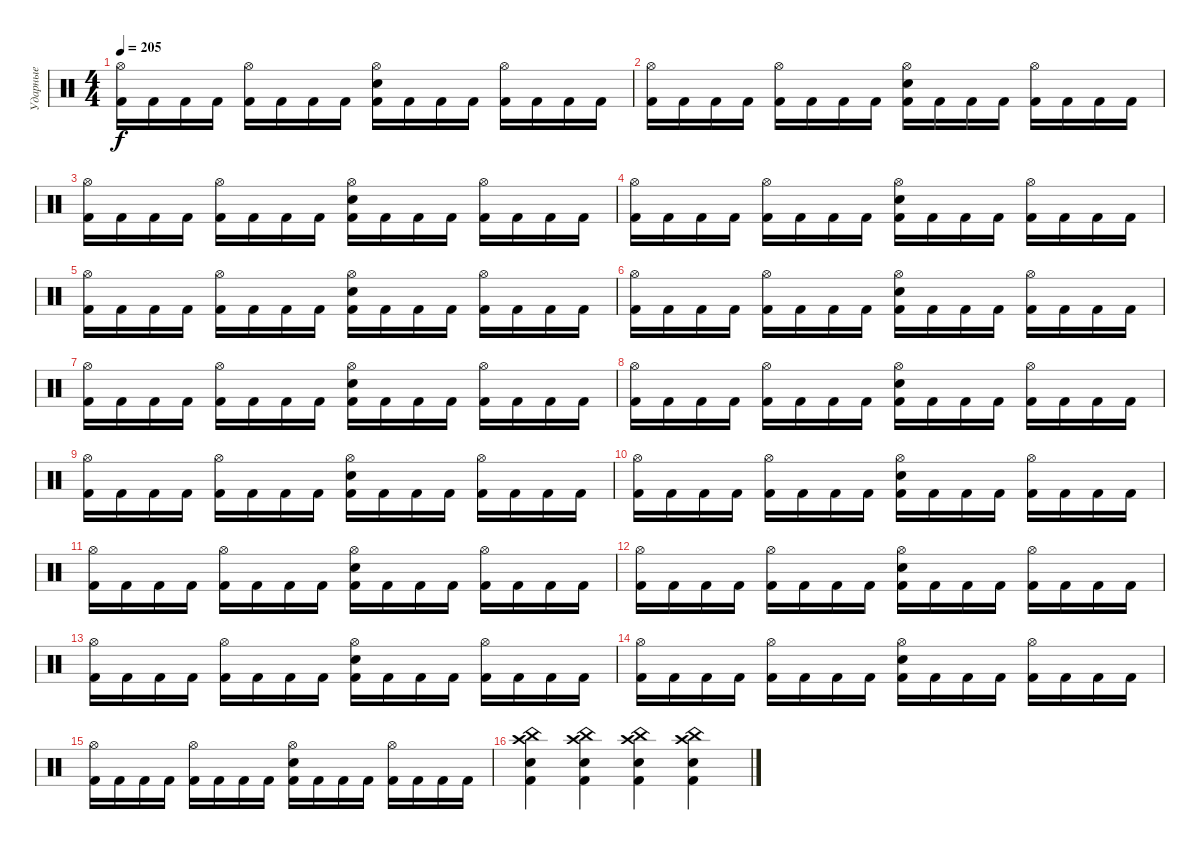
\track ("Ударные" "Ударные") {instrument percussion}
\staff {score}
\articulation defaults
\ts (4 4)
\tempo 205
\clef neutral
\ks c
("Hi-Hat (open)" "Kick (hit) 2").16{dy f} "Kick (hit) 2".16 "Kick (hit) 2".16 "Kick (hit) 2".16 ("Hi-Hat (open)" "Kick (hit) 2").16 "Kick (hit) 2".16 "Kick (hit) 2".16 "Kick (hit) 2".16 ("Hi-Hat (open)" "Electric Snare (hit)" "Kick (hit) 2").16 "Kick (hit) 2".16 "Kick (hit) 2".16 "Kick (hit) 2".16 ("Hi-Hat (open)" "Kick (hit) 2").16 "Kick (hit) 2".16 "Kick (hit) 2".16 "Kick (hit) 2".16 |
("Hi-Hat (open)" "Kick (hit) 2").16 "Kick (hit) 2".16 "Kick (hit) 2".16 "Kick (hit) 2".16 ("Hi-Hat (open)" "Kick (hit) 2").16 "Kick (hit) 2".16 "Kick (hit) 2".16 "Kick (hit) 2".16 ("Hi-Hat (open)" "Electric Snare (hit)" "Kick (hit) 2").16 "Kick (hit) 2".16 "Kick (hit) 2".16 "Kick (hit) 2".16 ("Hi-Hat (open)" "Kick (hit) 2").16 "Kick (hit) 2".16 "Kick (hit) 2".16 "Kick (hit) 2".16 |
("Hi-Hat (open)" "Kick (hit) 2").16 "Kick (hit) 2".16 "Kick (hit) 2".16 "Kick (hit) 2".16 ("Hi-Hat (open)" "Kick (hit) 2").16 "Kick (hit) 2".16 "Kick (hit) 2".16 "Kick (hit) 2".16 ("Hi-Hat (open)" "Electric Snare (hit)" "Kick (hit) 2").16 "Kick (hit) 2".16 "Kick (hit) 2".16 "Kick (hit) 2".16 ("Hi-Hat (open)" "Kick (hit) 2").16 "Kick (hit) 2".16 "Kick (hit) 2".16 "Kick (hit) 2".16 |
("Hi-Hat (open)" "Kick (hit) 2").16 "Kick (hit) 2".16 "Kick (hit) 2".16 "Kick (hit) 2".16 ("Hi-Hat (open)" "Kick (hit) 2").16 "Kick (hit) 2".16 "Kick (hit) 2".16 "Kick (hit) 2".16 ("Hi-Hat (open)" "Electric Snare (hit)" "Kick (hit) 2").16 "Kick (hit) 2".16 "Kick (hit) 2".16 "Kick (hit) 2".16 ("Hi-Hat (open)" "Kick (hit) 2").16 "Kick (hit) 2".16 "Kick (hit) 2".16 "Kick (hit) 2".16 |
("Hi-Hat (open)" "Kick (hit) 2").16 "Kick (hit) 2".16 "Kick (hit) 2".16 "Kick (hit) 2".16 ("Hi-Hat (open)" "Kick (hit) 2").16 "Kick (hit) 2".16 "Kick (hit) 2".16 "Kick (hit) 2".16 ("Hi-Hat (open)" "Electric Snare (hit)" "Kick (hit) 2").16 "Kick (hit) 2".16 "Kick (hit) 2".16 "Kick (hit) 2".16 ("Hi-Hat (open)" "Kick (hit) 2").16 "Kick (hit) 2".16 "Kick (hit) 2".16 "Kick (hit) 2".16 |
("Hi-Hat (open)" "Kick (hit) 2").16 "Kick (hit) 2".16 "Kick (hit) 2".16 "Kick (hit) 2".16 ("Hi-Hat (open)" "Kick (hit) 2").16 "Kick (hit) 2".16 "Kick (hit) 2".16 "Kick (hit) 2".16 ("Hi-Hat (open)" "Electric Snare (hit)" "Kick (hit) 2").16 "Kick (hit) 2".16 "Kick (hit) 2".16 "Kick (hit) 2".16 ("Hi-Hat (open)" "Kick (hit) 2").16 "Kick (hit) 2".16 "Kick (hit) 2".16 "Kick (hit) 2".16 |
("Hi-Hat (open)" "Kick (hit) 2").16 "Kick (hit) 2".16 "Kick (hit) 2".16 "Kick (hit) 2".16 ("Hi-Hat (open)" "Kick (hit) 2").16 "Kick (hit) 2".16 "Kick (hit) 2".16 "Kick (hit) 2".16 ("Hi-Hat (open)" "Electric Snare (hit)" "Kick (hit) 2").16 "Kick (hit) 2".16 "Kick (hit) 2".16 "Kick (hit) 2".16 ("Hi-Hat (open)" "Kick (hit) 2").16 "Kick (hit) 2".16 "Kick (hit) 2".16 "Kick (hit) 2".16 |
("Hi-Hat (open)" "Kick (hit) 2").16 "Kick (hit) 2".16 "Kick (hit) 2".16 "Kick (hit) 2".16 ("Hi-Hat (open)" "Kick (hit) 2").16 "Kick (hit) 2".16 "Kick (hit) 2".16 "Kick (hit) 2".16 ("Hi-Hat (open)" "Electric Snare (hit)" "Kick (hit) 2").16 "Kick (hit) 2".16 "Kick (hit) 2".16 "Kick (hit) 2".16 ("Hi-Hat (open)" "Kick (hit) 2").16 "Kick (hit) 2".16 "Kick (hit) 2".16 "Kick (hit) 2".16 |
("Hi-Hat (open)" "Kick (hit) 2").16 "Kick (hit) 2".16 "Kick (hit) 2".16 "Kick (hit) 2".16 ("Hi-Hat (open)" "Kick (hit) 2").16 "Kick (hit) 2".16 "Kick (hit) 2".16 "Kick (hit) 2".16 ("Hi-Hat (open)" "Electric Snare (hit)" "Kick (hit) 2").16 "Kick (hit) 2".16 "Kick (hit) 2".16 "Kick (hit) 2".16 ("Hi-Hat (open)" "Kick (hit) 2").16 "Kick (hit) 2".16 "Kick (hit) 2".16 "Kick (hit) 2".16 |
("Hi-Hat (open)" "Kick (hit) 2").16 "Kick (hit) 2".16 "Kick (hit) 2".16 "Kick (hit) 2".16 ("Hi-Hat (open)" "Kick (hit) 2").16 "Kick (hit) 2".16 "Kick (hit) 2".16 "Kick (hit) 2".16 ("Hi-Hat (open)" "Electric Snare (hit)" "Kick (hit) 2").16 "Kick (hit) 2".16 "Kick (hit) 2".16 "Kick (hit) 2".16 ("Hi-Hat (open)" "Kick (hit) 2").16 "Kick (hit) 2".16 "Kick (hit) 2".16 "Kick (hit) 2".16 |
("Hi-Hat (open)" "Kick (hit) 2").16 "Kick (hit) 2".16 "Kick (hit) 2".16 "Kick (hit) 2".16 ("Hi-Hat (open)" "Kick (hit) 2").16 "Kick (hit) 2".16 "Kick (hit) 2".16 "Kick (hit) 2".16 ("Hi-Hat (open)" "Electric Snare (hit)" "Kick (hit) 2").16 "Kick (hit) 2".16 "Kick (hit) 2".16 "Kick (hit) 2".16 ("Hi-Hat (open)" "Kick (hit) 2").16 "Kick (hit) 2".16 "Kick (hit) 2".16 "Kick (hit) 2".16 |
("Hi-Hat (open)" "Kick (hit) 2").16 "Kick (hit) 2".16 "Kick (hit) 2".16 "Kick (hit) 2".16 ("Hi-Hat (open)" "Kick (hit) 2").16 "Kick (hit) 2".16 "Kick (hit) 2".16 "Kick (hit) 2".16 ("Hi-Hat (open)" "Electric Snare (hit)" "Kick (hit) 2").16 "Kick (hit) 2".16 "Kick (hit) 2".16 "Kick (hit) 2".16 ("Hi-Hat (open)" "Kick (hit) 2").16 "Kick (hit) 2".16 "Kick (hit) 2".16 "Kick (hit) 2".16 |
("Hi-Hat (open)" "Kick (hit) 2").16 "Kick (hit) 2".16 "Kick (hit) 2".16 "Kick (hit) 2".16 ("Hi-Hat (open)" "Kick (hit) 2").16 "Kick (hit) 2".16 "Kick (hit) 2".16 "Kick (hit) 2".16 ("Hi-Hat (open)" "Electric Snare (hit)" "Kick (hit) 2").16 "Kick (hit) 2".16 "Kick (hit) 2".16 "Kick (hit) 2".16 ("Hi-Hat (open)" "Kick (hit) 2").16 "Kick (hit) 2".16 "Kick (hit) 2".16 "Kick (hit) 2".16 |
("Hi-Hat (open)" "Kick (hit) 2").16 "Kick (hit) 2".16 "Kick (hit) 2".16 "Kick (hit) 2".16 ("Hi-Hat (open)" "Kick (hit) 2").16 "Kick (hit) 2".16 "Kick (hit) 2".16 "Kick (hit) 2".16 ("Hi-Hat (open)" "Electric Snare (hit)" "Kick (hit) 2").16 "Kick (hit) 2".16 "Kick (hit) 2".16 "Kick (hit) 2".16 ("Hi-Hat (open)" "Kick (hit) 2").16 "Kick (hit) 2".16 "Kick (hit) 2".16 "Kick (hit) 2".16 |
("Hi-Hat (open)" "Kick (hit) 2").16 "Kick (hit) 2".16 "Kick (hit) 2".16 "Kick (hit) 2".16 ("Hi-Hat (open)" "Kick (hit) 2").16 "Kick (hit) 2".16 "Kick (hit) 2".16 "Kick (hit) 2".16 ("Hi-Hat (open)" "Electric Snare (hit)" "Kick (hit) 2").16 "Kick (hit) 2".16 "Kick (hit) 2".16 "Kick (hit) 2".16 ("Hi-Hat (open)" "Kick (hit) 2").16 "Kick (hit) 2".16 "Kick (hit) 2".16 "Kick (hit) 2".16 |
("Kick (hit) 2" "Electric Snare (hit)" "Crash high (hit)" "China (hit)").4 ("China (hit)" "Crash high (hit)" "Kick (hit) 2" "Electric Snare (hit)").4 ("Electric Snare (hit)" "Kick (hit) 2" "Crash high (hit)" "China (hit)").4 ("China (hit)" "Crash high (hit)" "Kick (hit) 2" "Electric Snare (hit)").4
